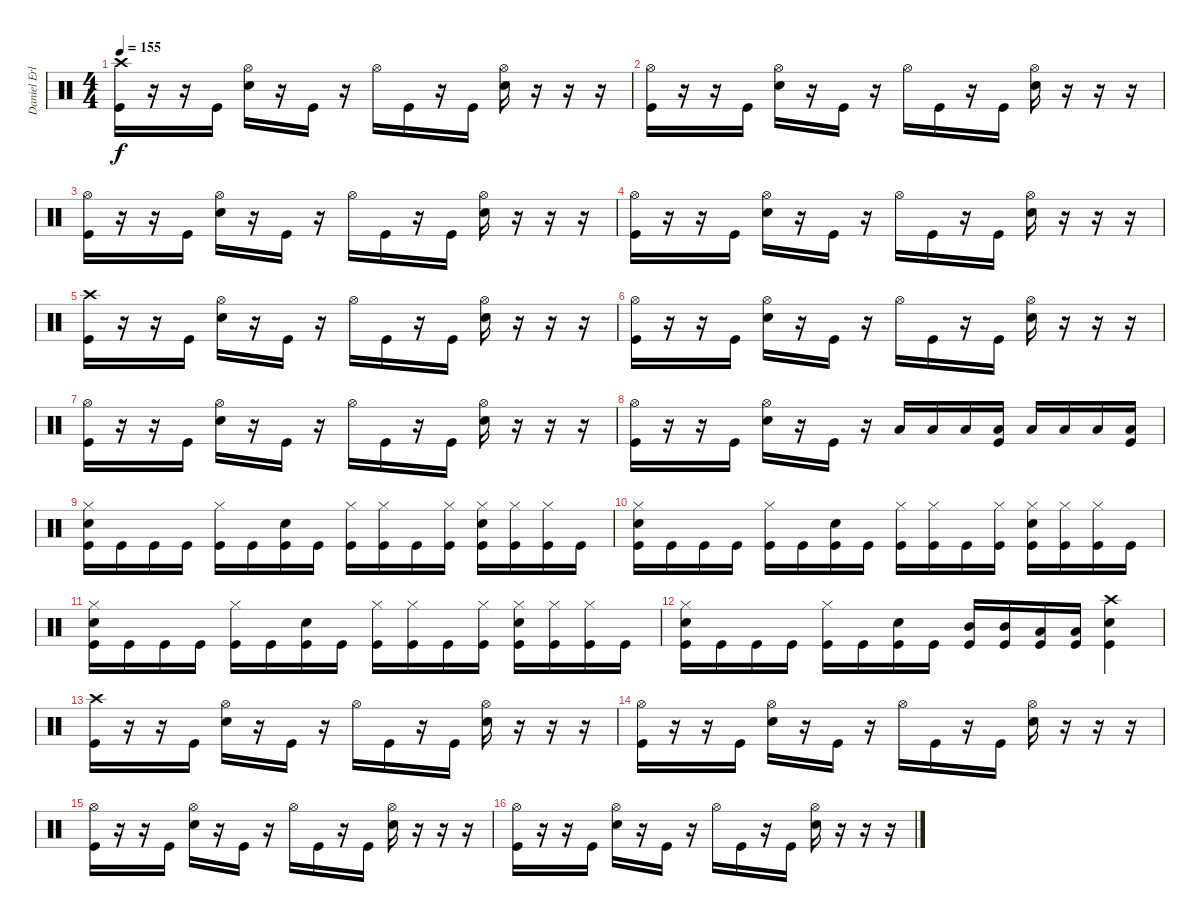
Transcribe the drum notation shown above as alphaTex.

\track ("Daniel Erlandsson" "Daniel Erl") {instrument percussion}
\staff {score}
\articulation defaults
\ts (4 4)
\tempo 155
\clef neutral
\ks c
("Crash high (hit)" "Kick (hit)").16{dy f} r.16 r.16 "Kick (hit)".16 ("Hi-Hat (open)" "Snare (hit) 2").16 r.16 "Kick (hit)".16 r.16 "Hi-Hat (open)".16 "Kick (hit)".16 r.16 "Kick (hit)".16 ("Hi-Hat (open)" "Snare (hit) 2").16 r.16 r.16 r.16 |
("Hi-Hat (open)" "Kick (hit)").16 r.16 r.16 "Kick (hit)".16 ("Hi-Hat (open)" "Snare (hit) 2").16 r.16 "Kick (hit)".16 r.16 "Hi-Hat (open)".16 "Kick (hit)".16 r.16 "Kick (hit)".16 ("Hi-Hat (open)" "Snare (hit) 2").16 r.16 r.16 r.16 |
("Hi-Hat (open)" "Kick (hit)").16 r.16 r.16 "Kick (hit)".16 ("Hi-Hat (open)" "Snare (hit) 2").16 r.16 "Kick (hit)".16 r.16 "Hi-Hat (open)".16 "Kick (hit)".16 r.16 "Kick (hit)".16 ("Hi-Hat (open)" "Snare (hit) 2").16 r.16 r.16 r.16 |
("Hi-Hat (open)" "Kick (hit)").16 r.16 r.16 "Kick (hit)".16 ("Hi-Hat (open)" "Snare (hit) 2").16 r.16 "Kick (hit)".16 r.16 "Hi-Hat (open)".16 "Kick (hit)".16 r.16 "Kick (hit)".16 ("Hi-Hat (open)" "Snare (hit) 2").16 r.16 r.16 r.16 |
("Crash high (hit)" "Kick (hit)").16 r.16 r.16 "Kick (hit)".16 ("Hi-Hat (open)" "Snare (hit) 2").16 r.16 "Kick (hit)".16 r.16 "Hi-Hat (open)".16 "Kick (hit)".16 r.16 "Kick (hit)".16 ("Hi-Hat (open)" "Snare (hit) 2").16 r.16 r.16 r.16 |
("Hi-Hat (open)" "Kick (hit)").16 r.16 r.16 "Kick (hit)".16 ("Hi-Hat (open)" "Snare (hit) 2").16 r.16 "Kick (hit)".16 r.16 "Hi-Hat (open)".16 "Kick (hit)".16 r.16 "Kick (hit)".16 ("Hi-Hat (open)" "Snare (hit) 2").16 r.16 r.16 r.16 |
("Hi-Hat (open)" "Kick (hit)").16 r.16 r.16 "Kick (hit)".16 ("Hi-Hat (open)" "Snare (hit) 2").16 r.16 "Kick (hit)".16 r.16 "Hi-Hat (open)".16 "Kick (hit)".16 r.16 "Kick (hit)".16 ("Hi-Hat (open)" "Snare (hit) 2").16 r.16 r.16 r.16 |
("Hi-Hat (open)" "Kick (hit)").16 r.16 r.16 "Kick (hit)".16 ("Hi-Hat (open)" "Snare (hit) 2").16 r.16 "Kick (hit)".16 r.16 "Low Tom (hit)".16 "Low Tom (hit)".16 "Low Tom (hit)".16 ("Low Floor Tom (hit)" "Kick (hit)").16 "Low Tom (hit)".16 "Low Tom (hit)".16 "Low Tom (hit)".16 ("Low Floor Tom (hit)" "Kick (hit)").16 |
("Hi-Hat (closed)" "Snare (hit) 2" "Kick (hit)").16 "Kick (hit)".16 "Kick (hit)".16 "Kick (hit)".16 ("Hi-Hat (closed)" "Kick (hit)").16 "Kick (hit)".16 ("Snare (hit) 2" "Kick (hit)").16 "Kick (hit)".16 ("Hi-Hat (closed)" "Kick (hit)").16 ("Hi-Hat (closed)" "Kick (hit)").16 "Kick (hit)".16 ("Hi-Hat (closed)" "Kick (hit)").16 ("Hi-Hat (closed)" "Snare (hit) 2" "Kick (hit)").16 ("Hi-Hat (closed)" "Kick (hit)").16 ("Hi-Hat (closed)" "Kick (hit)").16 "Kick (hit)".16 |
("Hi-Hat (closed)" "Snare (hit) 2" "Kick (hit)").16 "Kick (hit)".16 "Kick (hit)".16 "Kick (hit)".16 ("Hi-Hat (closed)" "Kick (hit)").16 "Kick (hit)".16 ("Snare (hit) 2" "Kick (hit)").16 "Kick (hit)".16 ("Hi-Hat (closed)" "Kick (hit)").16 ("Hi-Hat (closed)" "Kick (hit)").16 "Kick (hit)".16 ("Hi-Hat (closed)" "Kick (hit)").16 ("Hi-Hat (closed)" "Snare (hit) 2" "Kick (hit)").16 ("Hi-Hat (closed)" "Kick (hit)").16 ("Hi-Hat (closed)" "Kick (hit)").16 "Kick (hit)".16 |
("Hi-Hat (closed)" "Snare (hit) 2" "Kick (hit)").16 "Kick (hit)".16 "Kick (hit)".16 "Kick (hit)".16 ("Hi-Hat (closed)" "Kick (hit)").16 "Kick (hit)".16 ("Snare (hit) 2" "Kick (hit)").16 "Kick (hit)".16 ("Hi-Hat (closed)" "Kick (hit)").16 ("Hi-Hat (closed)" "Kick (hit)").16 "Kick (hit)".16 ("Hi-Hat (closed)" "Kick (hit)").16 ("Hi-Hat (closed)" "Snare (hit) 2" "Kick (hit)").16 ("Hi-Hat (closed)" "Kick (hit)").16 ("Hi-Hat (closed)" "Kick (hit)").16 "Kick (hit)".16 |
("Hi-Hat (closed)" "Snare (hit) 2" "Kick (hit)").16 "Kick (hit)".16 "Kick (hit)".16 "Kick (hit)".16 ("Hi-Hat (closed)" "Kick (hit)").16 "Kick (hit)".16 ("Snare (hit) 2" "Kick (hit)").16 "Kick (hit)".16 ("Mid Tom (hit)" "Kick (hit)").16 ("Mid Tom (hit)" "Kick (hit)").16 ("Low Tom (hit)" "Kick (hit)").16 ("Low Tom (hit)" "Kick (hit)").16 ("Crash high (hit)" "Snare (hit) 2" "Kick (hit)").4 |
("Crash high (hit)" "Kick (hit)").16 r.16 r.16 "Kick (hit)".16 ("Hi-Hat (open)" "Snare (hit) 2").16 r.16 "Kick (hit)".16 r.16 "Hi-Hat (open)".16 "Kick (hit)".16 r.16 "Kick (hit)".16 ("Hi-Hat (open)" "Snare (hit) 2").16 r.16 r.16 r.16 |
("Hi-Hat (open)" "Kick (hit)").16 r.16 r.16 "Kick (hit)".16 ("Hi-Hat (open)" "Snare (hit) 2").16 r.16 "Kick (hit)".16 r.16 "Hi-Hat (open)".16 "Kick (hit)".16 r.16 "Kick (hit)".16 ("Hi-Hat (open)" "Snare (hit) 2").16 r.16 r.16 r.16 |
("Hi-Hat (open)" "Kick (hit)").16 r.16 r.16 "Kick (hit)".16 ("Hi-Hat (open)" "Snare (hit) 2").16 r.16 "Kick (hit)".16 r.16 "Hi-Hat (open)".16 "Kick (hit)".16 r.16 "Kick (hit)".16 ("Hi-Hat (open)" "Snare (hit) 2").16 r.16 r.16 r.16 |
("Hi-Hat (open)" "Kick (hit)").16 r.16 r.16 "Kick (hit)".16 ("Hi-Hat (open)" "Snare (hit) 2").16 r.16 "Kick (hit)".16 r.16 "Hi-Hat (open)".16 "Kick (hit)".16 r.16 "Kick (hit)".16 ("Hi-Hat (open)" "Snare (hit) 2").16 r.16 r.16 r.16
